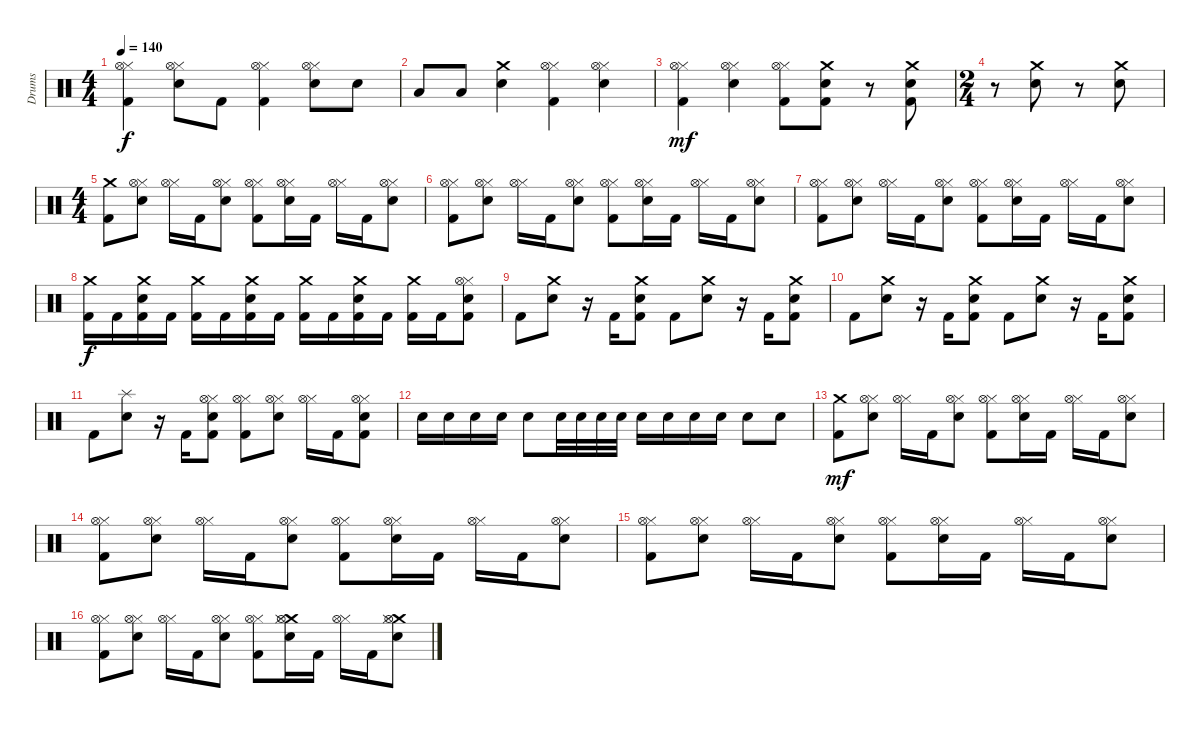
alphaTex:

\track ("Drums" "Drums") {instrument percussion}
\staff {score}
\articulation defaults
\ts (4 4)
\tempo 140
\clef neutral
\ks c
("Hi-Hat (closed)" "Hi-Hat (open)" "Kick (hit) 2").4{dy f} ("Hi-Hat (closed)" "Hi-Hat (open)" "Electric Snare (hit)").8 "Kick (hit) 2".8 ("Hi-Hat (closed)" "Hi-Hat (open)" "Kick (hit) 2").4 ("Hi-Hat (closed)" "Hi-Hat (open)" "Electric Snare (hit)").8 "Electric Snare (hit)".8 |
"Low Tom (hit)".8 "Low Tom (hit)".8 ("Crash medium (hit)" "Electric Snare (hit)").4 ("Hi-Hat (closed)" "Hi-Hat (open)" "Kick (hit) 2").4 ("Hi-Hat (closed)" "Hi-Hat (open)" "Electric Snare (hit)").4 |
("Hi-Hat (closed)" "Hi-Hat (open)" "Kick (hit) 2").4{dy mf} ("Hi-Hat (closed)" "Hi-Hat (open)" "Electric Snare (hit)").4 ("Hi-Hat (closed)" "Hi-Hat (open)" "Kick (hit) 2").8 ("Crash medium (hit)" "Electric Snare (hit)" "Kick (hit) 2").8 r.8 ("Crash medium (hit)" "Electric Snare (hit)" "Kick (hit) 2").8 |
\ts (2 4)
r.8 ("Crash medium (hit)" "Electric Snare (hit)").8 r.8 ("Crash medium (hit)" "Electric Snare (hit)").8 |
\ts (4 4)
("Crash medium (hit)" "Kick (hit) 2").8 ("Hi-Hat (closed)" "Hi-Hat (open)" "Electric Snare (hit)").8 ("Hi-Hat (closed)" "Hi-Hat (open)").16 "Kick (hit) 2".16 ("Hi-Hat (closed)" "Hi-Hat (open)" "Electric Snare (hit)").8 ("Hi-Hat (closed)" "Hi-Hat (open)" "Kick (hit) 2").8 ("Hi-Hat (closed)" "Hi-Hat (open)" "Electric Snare (hit)").16 "Kick (hit) 2".16 ("Hi-Hat (closed)" "Hi-Hat (open)").16 "Kick (hit) 2".16 ("Hi-Hat (closed)" "Hi-Hat (open)" "Electric Snare (hit)").8 |
("Hi-Hat (closed)" "Hi-Hat (open)" "Kick (hit) 2").8 ("Hi-Hat (closed)" "Hi-Hat (open)" "Electric Snare (hit)").8 ("Hi-Hat (closed)" "Hi-Hat (open)").16 "Kick (hit) 2".16 ("Hi-Hat (closed)" "Hi-Hat (open)" "Electric Snare (hit)").8 ("Hi-Hat (closed)" "Hi-Hat (open)" "Kick (hit) 2").8 ("Hi-Hat (closed)" "Hi-Hat (open)" "Electric Snare (hit)").16 "Kick (hit) 2".16 ("Hi-Hat (closed)" "Hi-Hat (open)").16 "Kick (hit) 2".16 ("Hi-Hat (closed)" "Hi-Hat (open)" "Electric Snare (hit)").8 |
("Hi-Hat (closed)" "Hi-Hat (open)" "Kick (hit) 2").8 ("Hi-Hat (closed)" "Hi-Hat (open)" "Electric Snare (hit)").8 ("Hi-Hat (closed)" "Hi-Hat (open)").16 "Kick (hit) 2".16 ("Hi-Hat (closed)" "Hi-Hat (open)" "Electric Snare (hit)").8 ("Hi-Hat (closed)" "Hi-Hat (open)" "Kick (hit) 2").8 ("Hi-Hat (closed)" "Hi-Hat (open)" "Electric Snare (hit)").16 "Kick (hit) 2".16 ("Hi-Hat (closed)" "Hi-Hat (open)").16 "Kick (hit) 2".16 ("Hi-Hat (closed)" "Hi-Hat (open)" "Electric Snare (hit)").8 |
("Crash medium (hit)" "Kick (hit) 2").16{dy f} "Kick (hit) 2".16 ("Crash medium (hit)" "Electric Snare (hit)" "Kick (hit) 2").16 "Kick (hit) 2".16 ("Crash medium (hit)" "Kick (hit) 2").16 "Kick (hit) 2".16 ("Crash medium (hit)" "Electric Snare (hit)" "Kick (hit) 2").16 "Kick (hit) 2".16 ("Crash medium (hit)" "Kick (hit) 2").16 "Kick (hit) 2".16 ("Crash medium (hit)" "Electric Snare (hit)" "Kick (hit) 2").16 "Kick (hit) 2".16 ("Crash medium (hit)" "Kick (hit) 2").16 "Kick (hit) 2".16 ("Hi-Hat (closed)" "Hi-Hat (open)" "Electric Snare (hit)" "Kick (hit) 2").8 |
"Kick (hit) 2".8 ("Crash medium (hit)" "Electric Snare (hit)").8 r.16 "Kick (hit) 2".16 ("Crash medium (hit)" "Electric Snare (hit)" "Kick (hit) 2").8 "Kick (hit) 2".8 ("Crash medium (hit)" "Electric Snare (hit)").8 r.16 "Kick (hit) 2".16 ("Crash medium (hit)" "Electric Snare (hit)" "Kick (hit) 2").8 |
"Kick (hit) 2".8 ("Crash medium (hit)" "Electric Snare (hit)").8 r.16 "Kick (hit) 2".16 ("Crash medium (hit)" "Electric Snare (hit)" "Kick (hit) 2").8 "Kick (hit) 2".8 ("Crash medium (hit)" "Electric Snare (hit)").8 r.16 "Kick (hit) 2".16 ("Crash medium (hit)" "Electric Snare (hit)" "Kick (hit) 2").8 |
"Kick (hit) 2".8 ("Splash (hit)" "Electric Snare (hit)").8 r.16 "Kick (hit) 2".16 ("Hi-Hat (closed)" "Hi-Hat (open)" "Electric Snare (hit)" "Kick (hit) 2").8 ("Hi-Hat (closed)" "Hi-Hat (open)" "Kick (hit) 2").8 ("Hi-Hat (closed)" "Hi-Hat (open)" "Electric Snare (hit)").8 ("Hi-Hat (closed)" "Hi-Hat (open)").16 "Kick (hit) 2".16 ("Hi-Hat (closed)" "Hi-Hat (open)" "Electric Snare (hit)" "Kick (hit) 2").8 |
"Electric Snare (hit)".16 "Electric Snare (hit)".16 "Electric Snare (hit)".16 "Electric Snare (hit)".16 "Electric Snare (hit)".8 "Electric Snare (hit)".32 "Electric Snare (hit)".32 "Electric Snare (hit)".32 "Electric Snare (hit)".32 "Electric Snare (hit)".16 "Electric Snare (hit)".16 "Electric Snare (hit)".16 "Electric Snare (hit)".16 "Electric Snare (hit)".8 "Electric Snare (hit)".8 |
("Crash medium (hit)" "Kick (hit) 2").8{dy mf} ("Hi-Hat (closed)" "Hi-Hat (open)" "Electric Snare (hit)").8 ("Hi-Hat (closed)" "Hi-Hat (open)").16 "Kick (hit) 2".16 ("Hi-Hat (closed)" "Hi-Hat (open)" "Electric Snare (hit)").8 ("Hi-Hat (closed)" "Hi-Hat (open)" "Kick (hit) 2").8 ("Hi-Hat (closed)" "Hi-Hat (open)" "Electric Snare (hit)").16 "Kick (hit) 2".16 ("Hi-Hat (closed)" "Hi-Hat (open)").16 "Kick (hit) 2".16 ("Hi-Hat (closed)" "Hi-Hat (open)" "Electric Snare (hit)").8 |
("Hi-Hat (closed)" "Hi-Hat (open)" "Kick (hit) 2").8 ("Hi-Hat (closed)" "Hi-Hat (open)" "Electric Snare (hit)").8 ("Hi-Hat (closed)" "Hi-Hat (open)").16 "Kick (hit) 2".16 ("Hi-Hat (closed)" "Hi-Hat (open)" "Electric Snare (hit)").8 ("Hi-Hat (closed)" "Hi-Hat (open)" "Kick (hit) 2").8 ("Hi-Hat (closed)" "Hi-Hat (open)" "Electric Snare (hit)").16 "Kick (hit) 2".16 ("Hi-Hat (closed)" "Hi-Hat (open)").16 "Kick (hit) 2".16 ("Hi-Hat (closed)" "Hi-Hat (open)" "Electric Snare (hit)").8 |
("Hi-Hat (closed)" "Hi-Hat (open)" "Kick (hit) 2").8 ("Hi-Hat (closed)" "Hi-Hat (open)" "Electric Snare (hit)").8 ("Hi-Hat (closed)" "Hi-Hat (open)").16 "Kick (hit) 2".16 ("Hi-Hat (closed)" "Hi-Hat (open)" "Electric Snare (hit)").8 ("Hi-Hat (closed)" "Hi-Hat (open)" "Kick (hit) 2").8 ("Hi-Hat (closed)" "Hi-Hat (open)" "Electric Snare (hit)").16 "Kick (hit) 2".16 ("Hi-Hat (closed)" "Hi-Hat (open)").16 "Kick (hit) 2".16 ("Hi-Hat (closed)" "Hi-Hat (open)" "Electric Snare (hit)").8 |
("Hi-Hat (closed)" "Hi-Hat (open)" "Kick (hit) 2").8 ("Hi-Hat (closed)" "Hi-Hat (open)" "Electric Snare (hit)").8 ("Hi-Hat (closed)" "Hi-Hat (open)").16 "Kick (hit) 2".16 ("Hi-Hat (closed)" "Hi-Hat (open)" "Electric Snare (hit)").8 ("Hi-Hat (closed)" "Hi-Hat (open)" "Kick (hit) 2").8 ("Crash medium (hit)" "Hi-Hat (closed)" "Hi-Hat (open)" "Electric Snare (hit)").16 "Kick (hit) 2".16 ("Hi-Hat (closed)" "Hi-Hat (open)").16 "Kick (hit) 2".16 ("Crash medium (hit)" "Hi-Hat (closed)" "Hi-Hat (open)" "Electric Snare (hit)").8
